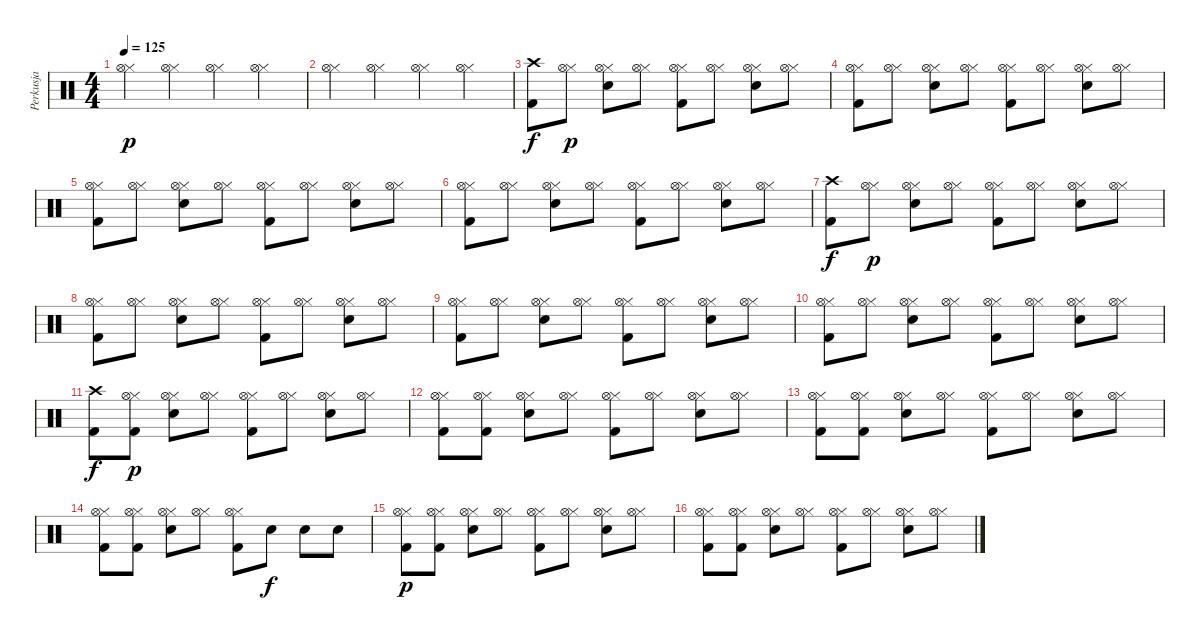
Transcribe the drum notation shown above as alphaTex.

\track ("Perkusja" "Perkusja") {instrument percussion}
\staff {score}
\articulation defaults
\ts (4 4)
\tempo 125
\clef neutral
\ks c
("Hi-Hat (closed)" "Hi-Hat (open)").4{dy p} ("Hi-Hat (closed)" "Hi-Hat (open)").4 ("Hi-Hat (closed)" "Hi-Hat (open)").4 ("Hi-Hat (closed)" "Hi-Hat (open)").4 |
("Hi-Hat (closed)" "Hi-Hat (open)").4 ("Hi-Hat (closed)" "Hi-Hat (open)").4 ("Hi-Hat (closed)" "Hi-Hat (open)").4 ("Hi-Hat (closed)" "Hi-Hat (open)").4 |
("Kick (hit) 2" "Crash high (hit)").8{dy f} ("Hi-Hat (closed)" "Hi-Hat (open)").8{dy p} ("Electric Snare (hit)" "Hi-Hat (closed)" "Hi-Hat (open)").8 ("Hi-Hat (closed)" "Hi-Hat (open)").8 ("Kick (hit) 2" "Hi-Hat (closed)" "Hi-Hat (open)").8 ("Hi-Hat (closed)" "Hi-Hat (open)").8 ("Electric Snare (hit)" "Hi-Hat (closed)" "Hi-Hat (open)").8 ("Hi-Hat (closed)" "Hi-Hat (open)").8 |
("Kick (hit) 2" "Hi-Hat (closed)" "Hi-Hat (open)").8 ("Hi-Hat (closed)" "Hi-Hat (open)").8 ("Electric Snare (hit)" "Hi-Hat (closed)" "Hi-Hat (open)").8 ("Hi-Hat (closed)" "Hi-Hat (open)").8 ("Kick (hit) 2" "Hi-Hat (closed)" "Hi-Hat (open)").8 ("Hi-Hat (closed)" "Hi-Hat (open)").8 ("Electric Snare (hit)" "Hi-Hat (closed)" "Hi-Hat (open)").8 ("Hi-Hat (closed)" "Hi-Hat (open)").8 |
("Kick (hit) 2" "Hi-Hat (closed)" "Hi-Hat (open)").8 ("Hi-Hat (closed)" "Hi-Hat (open)").8 ("Electric Snare (hit)" "Hi-Hat (closed)" "Hi-Hat (open)").8 ("Hi-Hat (closed)" "Hi-Hat (open)").8 ("Kick (hit) 2" "Hi-Hat (closed)" "Hi-Hat (open)").8 ("Hi-Hat (closed)" "Hi-Hat (open)").8 ("Electric Snare (hit)" "Hi-Hat (closed)" "Hi-Hat (open)").8 ("Hi-Hat (closed)" "Hi-Hat (open)").8 |
("Kick (hit) 2" "Hi-Hat (closed)" "Hi-Hat (open)").8 ("Hi-Hat (closed)" "Hi-Hat (open)").8 ("Electric Snare (hit)" "Hi-Hat (closed)" "Hi-Hat (open)").8 ("Hi-Hat (closed)" "Hi-Hat (open)").8 ("Kick (hit) 2" "Hi-Hat (closed)" "Hi-Hat (open)").8 ("Hi-Hat (closed)" "Hi-Hat (open)").8 ("Electric Snare (hit)" "Hi-Hat (closed)" "Hi-Hat (open)").8 ("Hi-Hat (closed)" "Hi-Hat (open)").8 |
("Kick (hit) 2" "Crash high (hit)").8{dy f} ("Hi-Hat (closed)" "Hi-Hat (open)").8{dy p} ("Electric Snare (hit)" "Hi-Hat (closed)" "Hi-Hat (open)").8 ("Hi-Hat (closed)" "Hi-Hat (open)").8 ("Kick (hit) 2" "Hi-Hat (closed)" "Hi-Hat (open)").8 ("Hi-Hat (closed)" "Hi-Hat (open)").8 ("Electric Snare (hit)" "Hi-Hat (closed)" "Hi-Hat (open)").8 ("Hi-Hat (closed)" "Hi-Hat (open)").8 |
("Kick (hit) 2" "Hi-Hat (closed)" "Hi-Hat (open)").8 ("Hi-Hat (closed)" "Hi-Hat (open)").8 ("Electric Snare (hit)" "Hi-Hat (closed)" "Hi-Hat (open)").8 ("Hi-Hat (closed)" "Hi-Hat (open)").8 ("Kick (hit) 2" "Hi-Hat (closed)" "Hi-Hat (open)").8 ("Hi-Hat (closed)" "Hi-Hat (open)").8 ("Electric Snare (hit)" "Hi-Hat (closed)" "Hi-Hat (open)").8 ("Hi-Hat (closed)" "Hi-Hat (open)").8 |
("Kick (hit) 2" "Hi-Hat (closed)" "Hi-Hat (open)").8 ("Hi-Hat (closed)" "Hi-Hat (open)").8 ("Electric Snare (hit)" "Hi-Hat (closed)" "Hi-Hat (open)").8 ("Hi-Hat (closed)" "Hi-Hat (open)").8 ("Kick (hit) 2" "Hi-Hat (closed)" "Hi-Hat (open)").8 ("Hi-Hat (closed)" "Hi-Hat (open)").8 ("Electric Snare (hit)" "Hi-Hat (closed)" "Hi-Hat (open)").8 ("Hi-Hat (closed)" "Hi-Hat (open)").8 |
("Kick (hit) 2" "Hi-Hat (closed)" "Hi-Hat (open)").8 ("Hi-Hat (closed)" "Hi-Hat (open)").8 ("Electric Snare (hit)" "Hi-Hat (closed)" "Hi-Hat (open)").8 ("Hi-Hat (closed)" "Hi-Hat (open)").8 ("Kick (hit) 2" "Hi-Hat (closed)" "Hi-Hat (open)").8 ("Hi-Hat (closed)" "Hi-Hat (open)").8 ("Electric Snare (hit)" "Hi-Hat (closed)" "Hi-Hat (open)").8 ("Hi-Hat (closed)" "Hi-Hat (open)").8 |
("Kick (hit) 2" "Crash high (hit)").8{dy f} ("Kick (hit) 2" "Hi-Hat (closed)" "Hi-Hat (open)").8{dy p} ("Electric Snare (hit)" "Hi-Hat (closed)" "Hi-Hat (open)").8 ("Hi-Hat (closed)" "Hi-Hat (open)").8 ("Kick (hit) 2" "Hi-Hat (closed)" "Hi-Hat (open)").8 ("Hi-Hat (closed)" "Hi-Hat (open)").8 ("Electric Snare (hit)" "Hi-Hat (closed)" "Hi-Hat (open)").8 ("Hi-Hat (closed)" "Hi-Hat (open)").8 |
("Kick (hit) 2" "Hi-Hat (closed)" "Hi-Hat (open)").8 ("Kick (hit) 2" "Hi-Hat (closed)" "Hi-Hat (open)").8 ("Electric Snare (hit)" "Hi-Hat (closed)" "Hi-Hat (open)").8 ("Hi-Hat (closed)" "Hi-Hat (open)").8 ("Kick (hit) 2" "Hi-Hat (closed)" "Hi-Hat (open)").8 ("Hi-Hat (closed)" "Hi-Hat (open)").8 ("Electric Snare (hit)" "Hi-Hat (closed)" "Hi-Hat (open)").8 ("Hi-Hat (closed)" "Hi-Hat (open)").8 |
("Kick (hit) 2" "Hi-Hat (closed)" "Hi-Hat (open)").8 ("Kick (hit) 2" "Hi-Hat (closed)" "Hi-Hat (open)").8 ("Electric Snare (hit)" "Hi-Hat (closed)" "Hi-Hat (open)").8 ("Hi-Hat (closed)" "Hi-Hat (open)").8 ("Kick (hit) 2" "Hi-Hat (closed)" "Hi-Hat (open)").8 ("Hi-Hat (closed)" "Hi-Hat (open)").8 ("Electric Snare (hit)" "Hi-Hat (closed)" "Hi-Hat (open)").8 ("Hi-Hat (closed)" "Hi-Hat (open)").8 |
("Kick (hit) 2" "Hi-Hat (closed)" "Hi-Hat (open)").8 ("Kick (hit) 2" "Hi-Hat (closed)" "Hi-Hat (open)").8 ("Electric Snare (hit)" "Hi-Hat (closed)" "Hi-Hat (open)").8 ("Hi-Hat (closed)" "Hi-Hat (open)").8 ("Kick (hit) 2" "Hi-Hat (closed)" "Hi-Hat (open)").8 "Electric Snare (hit)".8{dy f} "Electric Snare (hit)".8 "Electric Snare (hit)".8 |
("Kick (hit) 2" "Hi-Hat (closed)" "Hi-Hat (open)").8{dy p} ("Kick (hit) 2" "Hi-Hat (closed)" "Hi-Hat (open)").8 ("Electric Snare (hit)" "Hi-Hat (closed)" "Hi-Hat (open)").8 ("Hi-Hat (closed)" "Hi-Hat (open)").8 ("Kick (hit) 2" "Hi-Hat (closed)" "Hi-Hat (open)").8 ("Hi-Hat (closed)" "Hi-Hat (open)").8 ("Electric Snare (hit)" "Hi-Hat (closed)" "Hi-Hat (open)").8 ("Hi-Hat (closed)" "Hi-Hat (open)").8 |
("Kick (hit) 2" "Hi-Hat (closed)" "Hi-Hat (open)").8 ("Kick (hit) 2" "Hi-Hat (closed)" "Hi-Hat (open)").8 ("Electric Snare (hit)" "Hi-Hat (closed)" "Hi-Hat (open)").8 ("Hi-Hat (closed)" "Hi-Hat (open)").8 ("Kick (hit) 2" "Hi-Hat (closed)" "Hi-Hat (open)").8 ("Hi-Hat (closed)" "Hi-Hat (open)").8 ("Electric Snare (hit)" "Hi-Hat (closed)" "Hi-Hat (open)").8 ("Hi-Hat (closed)" "Hi-Hat (open)").8
